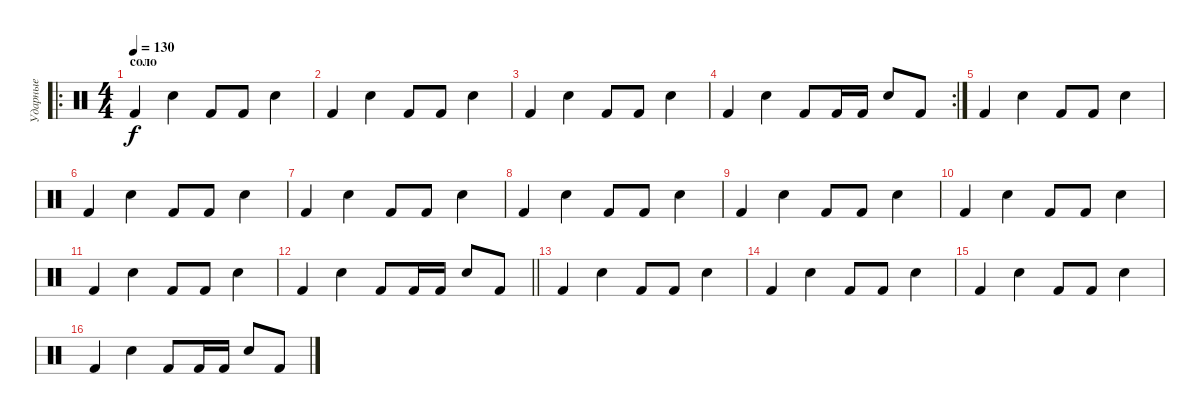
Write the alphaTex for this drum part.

\track ("Ударные" "Ударные") {instrument percussion}
\staff {score}
\articulation defaults
\ro
\ts (4 4)
\section ("" "соло")
\tempo 130
\clef neutral
\ks c "Kick (hit) 2".4{dy f} "Electric Snare (hit)".4 "Kick (hit) 2".8 "Kick (hit) 2".8 "Electric Snare (hit)".4
|
"Kick (hit) 2".4 "Electric Snare (hit)".4 "Kick (hit) 2".8 "Kick (hit) 2".8 "Electric Snare (hit)".4 |
"Kick (hit) 2".4 "Electric Snare (hit)".4 "Kick (hit) 2".8 "Kick (hit) 2".8 "Electric Snare (hit)".4 |
\rc 2 "Kick (hit) 2".4 "Electric Snare (hit)".4 "Kick (hit) 2".8 "Kick (hit) 2".16 "Kick (hit) 2".16 "Electric Snare (hit)".8 "Kick (hit) 2".8
|
"Kick (hit) 2".4 "Electric Snare (hit)".4 "Kick (hit) 2".8 "Kick (hit) 2".8 "Electric Snare (hit)".4 |
"Kick (hit) 2".4 "Electric Snare (hit)".4 "Kick (hit) 2".8 "Kick (hit) 2".8 "Electric Snare (hit)".4 |
"Kick (hit) 2".4 "Electric Snare (hit)".4 "Kick (hit) 2".8 "Kick (hit) 2".8 "Electric Snare (hit)".4 |
"Kick (hit) 2".4 "Electric Snare (hit)".4 "Kick (hit) 2".8 "Kick (hit) 2".8 "Electric Snare (hit)".4 |
"Kick (hit) 2".4 "Electric Snare (hit)".4 "Kick (hit) 2".8 "Kick (hit) 2".8 "Electric Snare (hit)".4 |
"Kick (hit) 2".4 "Electric Snare (hit)".4 "Kick (hit) 2".8 "Kick (hit) 2".8 "Electric Snare (hit)".4 |
"Kick (hit) 2".4 "Electric Snare (hit)".4 "Kick (hit) 2".8 "Kick (hit) 2".8 "Electric Snare (hit)".4 |
\barLineRight lightlight "Kick (hit) 2".4 "Electric Snare (hit)".4 "Kick (hit) 2".8 "Kick (hit) 2".16 "Kick (hit) 2".16 "Electric Snare (hit)".8 "Kick (hit) 2".8
|
"Kick (hit) 2".4 "Electric Snare (hit)".4 "Kick (hit) 2".8 "Kick (hit) 2".8 "Electric Snare (hit)".4 |
"Kick (hit) 2".4 "Electric Snare (hit)".4 "Kick (hit) 2".8 "Kick (hit) 2".8 "Electric Snare (hit)".4 |
"Kick (hit) 2".4 "Electric Snare (hit)".4 "Kick (hit) 2".8 "Kick (hit) 2".8 "Electric Snare (hit)".4 |
"Kick (hit) 2".4 "Electric Snare (hit)".4 "Kick (hit) 2".8 "Kick (hit) 2".16 "Kick (hit) 2".16 "Electric Snare (hit)".8 "Kick (hit) 2".8
